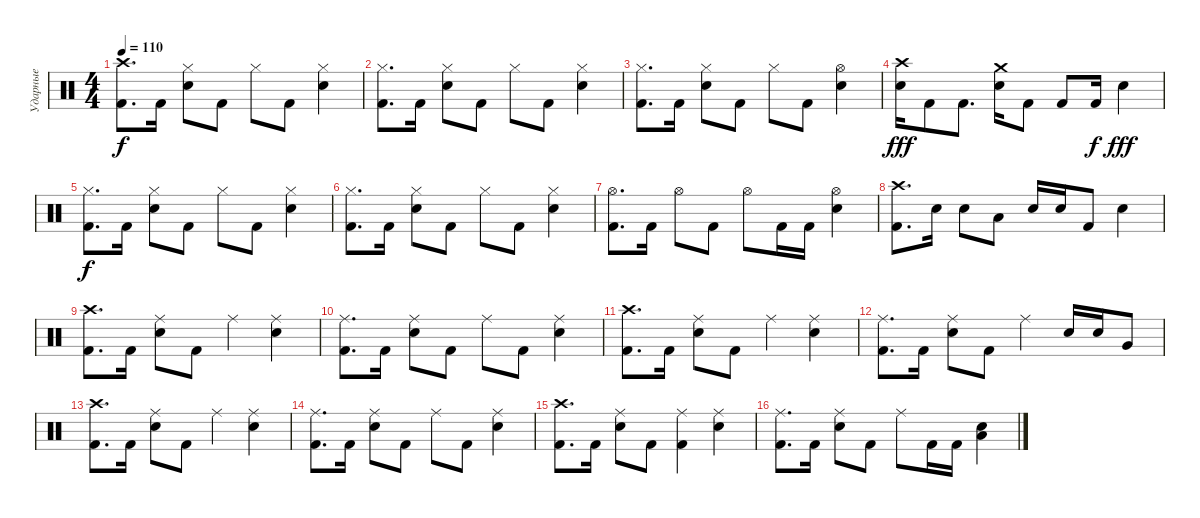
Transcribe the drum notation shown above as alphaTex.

\track ("Ударные" "Ударные") {instrument percussion}
\staff {score}
\articulation defaults
\ts (4 4)
\tempo 110
\clef neutral
\ks c
("Crash high (hit)" "Kick (hit) 2").8{d dy f} "Kick (hit) 2".16 ("Electric Snare (hit)" "Hi-Hat (closed)").8 "Kick (hit) 2".8 "Hi-Hat (closed)".8 "Kick (hit) 2".8 ("Electric Snare (hit)" "Hi-Hat (closed)").4 |
("Kick (hit) 2" "Hi-Hat (closed)").8{d} "Kick (hit) 2".16 ("Electric Snare (hit)" "Hi-Hat (closed)").8 "Kick (hit) 2".8 "Hi-Hat (closed)".8 "Kick (hit) 2".8 ("Electric Snare (hit)" "Hi-Hat (closed)").4 |
("Kick (hit) 2" "Hi-Hat (closed)").8{d} "Kick (hit) 2".16 ("Electric Snare (hit)" "Hi-Hat (closed)").8 "Kick (hit) 2".8 "Hi-Hat (closed)".8 "Kick (hit) 2".8 ("Electric Snare (hit)" "Hi-Hat (open)").4 |
("Crash high (hit)" "Electric Snare (hit)").16{dy fff} "Kick (hit) 2".8 "Kick (hit) 2".8{d} ("Crash medium (hit)" "Electric Snare (hit)").16 "Kick (hit) 2".8 "Kick (hit) 2".8 "Kick (hit) 2".16{dy f} "Electric Snare (hit)".4{dy fff} |
("Kick (hit) 2" "Hi-Hat (closed)").8{d dy f} "Kick (hit) 2".16 ("Electric Snare (hit)" "Hi-Hat (closed)").8 "Kick (hit) 2".8 "Hi-Hat (closed)".8 "Kick (hit) 2".8 ("Electric Snare (hit)" "Hi-Hat (closed)").4 |
("Kick (hit) 2" "Hi-Hat (closed)").8{d} "Kick (hit) 2".16 ("Electric Snare (hit)" "Hi-Hat (closed)").8 "Kick (hit) 2".8 "Hi-Hat (closed)".8 "Kick (hit) 2".8 ("Electric Snare (hit)" "Hi-Hat (closed)").4 |
("Kick (hit) 2" "Hi-Hat (open)").8{d} "Kick (hit) 2".16 "Hi-Hat (open)".8 "Kick (hit) 2".8 "Hi-Hat (open)".8 "Kick (hit) 2".16 "Kick (hit) 2".16 ("Electric Snare (hit)" "Hi-Hat (open)").4 |
("Crash high (hit)" "Kick (hit) 2").8{d} "Electric Snare (hit)".16 "Electric Snare (hit)".8 "Low Floor Tom (hit)".8 "Electric Snare (hit)".16 "Electric Snare (hit)".16 "Kick (hit) 2".8 "Electric Snare (hit)".4 |
("Crash high (hit)" "Kick (hit) 2").8{d} "Kick (hit) 2".16 ("Electric Snare (hit)" "Ride (middle)").8 "Kick (hit) 2".8 "Ride (middle)".4 ("Electric Snare (hit)" "Ride (middle)").4 |
("Kick (hit) 2" "Ride (middle)").8{d} "Kick (hit) 2".16 ("Electric Snare (hit)" "Ride (middle)").8 "Kick (hit) 2".8 "Ride (middle)".8 "Kick (hit) 2".8 ("Electric Snare (hit)" "Ride (middle)").4 |
("Crash high (hit)" "Kick (hit) 2").8{d} "Kick (hit) 2".16 ("Electric Snare (hit)" "Ride (middle)").8 "Kick (hit) 2".8 "Ride (middle)".4 ("Electric Snare (hit)" "Ride (middle)").4 |
("Kick (hit) 2" "Ride (middle)").8{d} "Kick (hit) 2".16 ("Electric Snare (hit)" "Ride (middle)").8 "Kick (hit) 2".8 "Ride (middle)".4 "Electric Snare (hit)".16 "Electric Snare (hit)".16 "Very Low Tom (hit)".8 |
("Crash high (hit)" "Kick (hit) 2").8{d} "Kick (hit) 2".16 ("Electric Snare (hit)" "Ride (middle)").8 "Kick (hit) 2".8 "Ride (middle)".4 ("Electric Snare (hit)" "Ride (middle)").4 |
("Kick (hit) 2" "Ride (middle)").8{d} "Kick (hit) 2".16 ("Electric Snare (hit)" "Ride (middle)").8 "Kick (hit) 2".8 "Ride (middle)".8 "Kick (hit) 2".8 ("Electric Snare (hit)" "Ride (middle)").4 |
("Crash high (hit)" "Kick (hit) 2").8{d} "Kick (hit) 2".16 ("Electric Snare (hit)" "Ride (middle)").8 "Kick (hit) 2".8 ("Kick (hit) 2" "Ride (middle)").4 ("Electric Snare (hit)" "Ride (middle)").4 |
("Kick (hit) 2" "Ride (middle)").8{d} "Kick (hit) 2".16 ("Electric Snare (hit)" "Ride (middle)").8 "Kick (hit) 2".8 "Ride (middle)".8 "Kick (hit) 2".16 "Kick (hit) 2".16 ("Electric Snare (hit)" "Low Floor Tom (hit)").4
